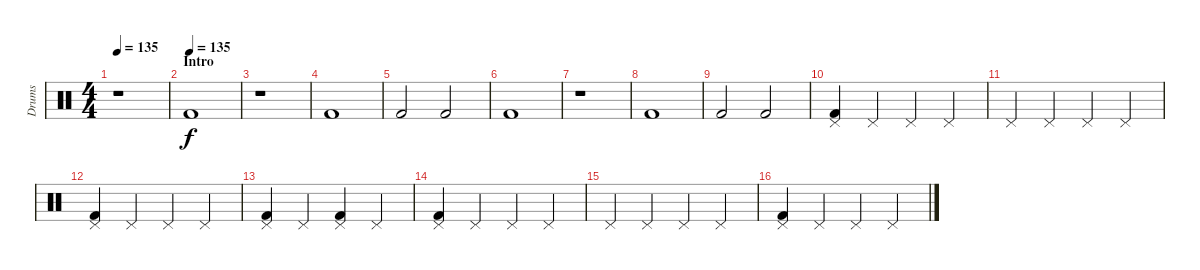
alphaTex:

\track ("Drums" "Drums") {instrument percussion}
\staff {score}
\articulation defaults
\ts (4 4)
\tempo 135
\clef neutral
\ks c
r.1{dy f} |
\section ("" "Intro")
\tempo (135)
"Kick (hit) 2".1 |
r.1 |
"Kick (hit) 2".1 |
"Kick (hit) 2".2 "Kick (hit) 2".2 |
"Kick (hit) 2".1 |
r.1 |
"Kick (hit) 2".1 |
"Kick (hit) 2".2 "Kick (hit) 2".2 |
("Pedal Hi-Hat (hit)" "Kick (hit) 2").4 "Pedal Hi-Hat (hit)".4 "Pedal Hi-Hat (hit)".4 "Pedal Hi-Hat (hit)".4 |
"Pedal Hi-Hat (hit)".4 "Pedal Hi-Hat (hit)".4 "Pedal Hi-Hat (hit)".4 "Pedal Hi-Hat (hit)".4 |
("Pedal Hi-Hat (hit)" "Kick (hit) 2").4 "Pedal Hi-Hat (hit)".4 "Pedal Hi-Hat (hit)".4 "Pedal Hi-Hat (hit)".4 |
("Pedal Hi-Hat (hit)" "Kick (hit) 2").4 "Pedal Hi-Hat (hit)".4 ("Pedal Hi-Hat (hit)" "Kick (hit) 2").4 "Pedal Hi-Hat (hit)".4 |
("Pedal Hi-Hat (hit)" "Kick (hit) 2").4 "Pedal Hi-Hat (hit)".4 "Pedal Hi-Hat (hit)".4 "Pedal Hi-Hat (hit)".4 |
"Pedal Hi-Hat (hit)".4 "Pedal Hi-Hat (hit)".4 "Pedal Hi-Hat (hit)".4 "Pedal Hi-Hat (hit)".4 |
("Pedal Hi-Hat (hit)" "Kick (hit) 2").4 "Pedal Hi-Hat (hit)".4 "Pedal Hi-Hat (hit)".4 "Pedal Hi-Hat (hit)".4
